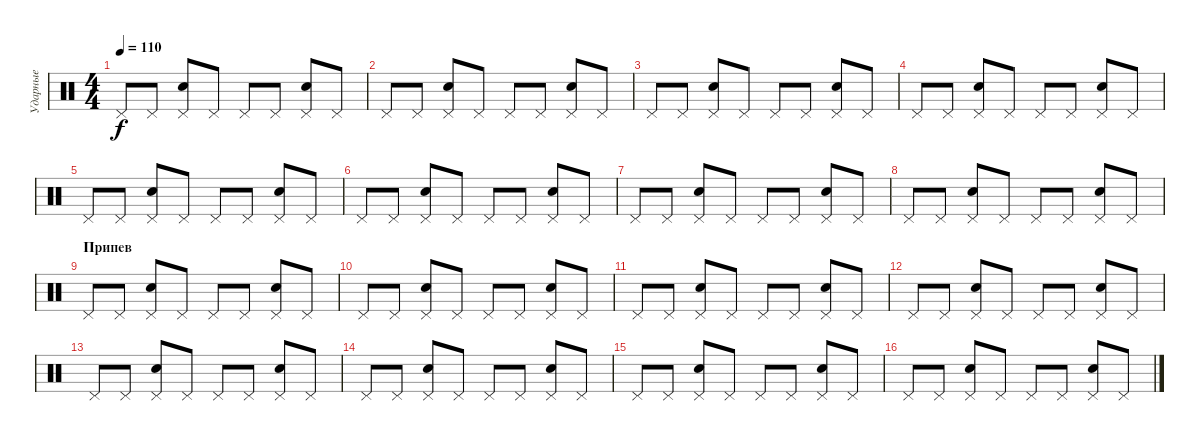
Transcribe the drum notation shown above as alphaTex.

\track ("Ударные" "Ударные") {instrument percussion}
\staff {score}
\articulation defaults
\ts (4 4)
\tempo 110
\clef neutral
\ks c "Pedal Hi-Hat (hit)".8{dy f} "Pedal Hi-Hat (hit)".8
("Pedal Hi-Hat (hit)" "Snare (hit) 2").8 "Pedal Hi-Hat (hit)".8 "Pedal Hi-Hat (hit)".8 "Pedal Hi-Hat (hit)".8 ("Pedal Hi-Hat (hit)" "Snare (hit) 2").8 "Pedal Hi-Hat (hit)".8 |
"Pedal Hi-Hat (hit)".8 "Pedal Hi-Hat (hit)".8 ("Pedal Hi-Hat (hit)" "Snare (hit) 2").8 "Pedal Hi-Hat (hit)".8 "Pedal Hi-Hat (hit)".8 "Pedal Hi-Hat (hit)".8 ("Pedal Hi-Hat (hit)" "Snare (hit) 2").8 "Pedal Hi-Hat (hit)".8 |
"Pedal Hi-Hat (hit)".8 "Pedal Hi-Hat (hit)".8 ("Pedal Hi-Hat (hit)" "Snare (hit) 2").8 "Pedal Hi-Hat (hit)".8 "Pedal Hi-Hat (hit)".8 "Pedal Hi-Hat (hit)".8 ("Pedal Hi-Hat (hit)" "Snare (hit) 2").8 "Pedal Hi-Hat (hit)".8 |
"Pedal Hi-Hat (hit)".8 "Pedal Hi-Hat (hit)".8 ("Pedal Hi-Hat (hit)" "Snare (hit) 2").8 "Pedal Hi-Hat (hit)".8 "Pedal Hi-Hat (hit)".8 "Pedal Hi-Hat (hit)".8 ("Pedal Hi-Hat (hit)" "Snare (hit) 2").8 "Pedal Hi-Hat (hit)".8 |
"Pedal Hi-Hat (hit)".8 "Pedal Hi-Hat (hit)".8 ("Pedal Hi-Hat (hit)" "Snare (hit) 2").8 "Pedal Hi-Hat (hit)".8 "Pedal Hi-Hat (hit)".8 "Pedal Hi-Hat (hit)".8 ("Pedal Hi-Hat (hit)" "Snare (hit) 2").8 "Pedal Hi-Hat (hit)".8 |
"Pedal Hi-Hat (hit)".8 "Pedal Hi-Hat (hit)".8 ("Pedal Hi-Hat (hit)" "Snare (hit) 2").8 "Pedal Hi-Hat (hit)".8 "Pedal Hi-Hat (hit)".8 "Pedal Hi-Hat (hit)".8 ("Pedal Hi-Hat (hit)" "Snare (hit) 2").8 "Pedal Hi-Hat (hit)".8 |
"Pedal Hi-Hat (hit)".8 "Pedal Hi-Hat (hit)".8 ("Pedal Hi-Hat (hit)" "Snare (hit) 2").8 "Pedal Hi-Hat (hit)".8 "Pedal Hi-Hat (hit)".8 "Pedal Hi-Hat (hit)".8 ("Pedal Hi-Hat (hit)" "Snare (hit) 2").8 "Pedal Hi-Hat (hit)".8 |
"Pedal Hi-Hat (hit)".8 "Pedal Hi-Hat (hit)".8 ("Pedal Hi-Hat (hit)" "Snare (hit) 2").8 "Pedal Hi-Hat (hit)".8 "Pedal Hi-Hat (hit)".8 "Pedal Hi-Hat (hit)".8 ("Pedal Hi-Hat (hit)" "Snare (hit) 2").8 "Pedal Hi-Hat (hit)".8 |
\section ("" "Припев")
"Pedal Hi-Hat (hit)".8 "Pedal Hi-Hat (hit)".8 ("Pedal Hi-Hat (hit)" "Snare (hit) 2").8 "Pedal Hi-Hat (hit)".8 "Pedal Hi-Hat (hit)".8 "Pedal Hi-Hat (hit)".8 ("Pedal Hi-Hat (hit)" "Snare (hit) 2").8 "Pedal Hi-Hat (hit)".8 |
"Pedal Hi-Hat (hit)".8 "Pedal Hi-Hat (hit)".8 ("Pedal Hi-Hat (hit)" "Snare (hit) 2").8 "Pedal Hi-Hat (hit)".8 "Pedal Hi-Hat (hit)".8 "Pedal Hi-Hat (hit)".8 ("Pedal Hi-Hat (hit)" "Snare (hit) 2").8 "Pedal Hi-Hat (hit)".8 |
"Pedal Hi-Hat (hit)".8 "Pedal Hi-Hat (hit)".8 ("Pedal Hi-Hat (hit)" "Snare (hit) 2").8 "Pedal Hi-Hat (hit)".8 "Pedal Hi-Hat (hit)".8 "Pedal Hi-Hat (hit)".8 ("Pedal Hi-Hat (hit)" "Snare (hit) 2").8 "Pedal Hi-Hat (hit)".8 |
"Pedal Hi-Hat (hit)".8 "Pedal Hi-Hat (hit)".8 ("Pedal Hi-Hat (hit)" "Snare (hit) 2").8 "Pedal Hi-Hat (hit)".8 "Pedal Hi-Hat (hit)".8 "Pedal Hi-Hat (hit)".8 ("Pedal Hi-Hat (hit)" "Snare (hit) 2").8 "Pedal Hi-Hat (hit)".8 |
"Pedal Hi-Hat (hit)".8 "Pedal Hi-Hat (hit)".8 ("Pedal Hi-Hat (hit)" "Snare (hit) 2").8 "Pedal Hi-Hat (hit)".8 "Pedal Hi-Hat (hit)".8 "Pedal Hi-Hat (hit)".8 ("Pedal Hi-Hat (hit)" "Snare (hit) 2").8 "Pedal Hi-Hat (hit)".8 |
"Pedal Hi-Hat (hit)".8 "Pedal Hi-Hat (hit)".8 ("Pedal Hi-Hat (hit)" "Snare (hit) 2").8 "Pedal Hi-Hat (hit)".8 "Pedal Hi-Hat (hit)".8 "Pedal Hi-Hat (hit)".8 ("Pedal Hi-Hat (hit)" "Snare (hit) 2").8 "Pedal Hi-Hat (hit)".8 |
"Pedal Hi-Hat (hit)".8 "Pedal Hi-Hat (hit)".8 ("Pedal Hi-Hat (hit)" "Snare (hit) 2").8 "Pedal Hi-Hat (hit)".8 "Pedal Hi-Hat (hit)".8 "Pedal Hi-Hat (hit)".8 ("Pedal Hi-Hat (hit)" "Snare (hit) 2").8 "Pedal Hi-Hat (hit)".8 |
"Pedal Hi-Hat (hit)".8 "Pedal Hi-Hat (hit)".8 ("Pedal Hi-Hat (hit)" "Snare (hit) 2").8 "Pedal Hi-Hat (hit)".8 "Pedal Hi-Hat (hit)".8 "Pedal Hi-Hat (hit)".8 ("Pedal Hi-Hat (hit)" "Snare (hit) 2").8 "Pedal Hi-Hat (hit)".8
